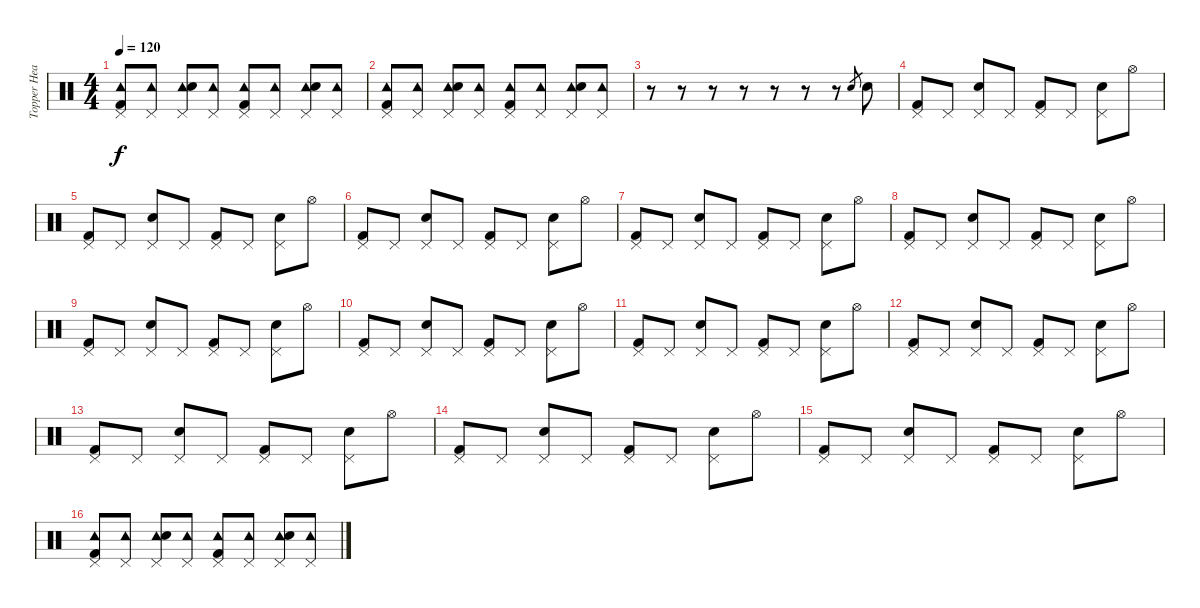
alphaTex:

\track ("Topper Headon" "Topper Hea") {instrument percussion}
\staff {score}
\articulation defaults
\ts (4 4)
\tempo 120
\clef neutral
\ks c
("Tambourine (hit)" "Pedal Hi-Hat (hit)" "Kick (hit) 2").8{dy f} ("Tambourine (hit)" "Pedal Hi-Hat (hit)").8 ("Tambourine (hit)" "Pedal Hi-Hat (hit)" "Electric Snare (hit)").8 ("Tambourine (hit)" "Pedal Hi-Hat (hit)").8 ("Tambourine (hit)" "Pedal Hi-Hat (hit)" "Kick (hit) 2").8 ("Tambourine (hit)" "Pedal Hi-Hat (hit)").8 ("Tambourine (hit)" "Pedal Hi-Hat (hit)" "Electric Snare (hit)").8 ("Tambourine (hit)" "Pedal Hi-Hat (hit)").8 |
("Tambourine (hit)" "Pedal Hi-Hat (hit)" "Kick (hit) 2").8 ("Tambourine (hit)" "Pedal Hi-Hat (hit)").8 ("Tambourine (hit)" "Pedal Hi-Hat (hit)" "Electric Snare (hit)").8 ("Tambourine (hit)" "Pedal Hi-Hat (hit)").8 ("Tambourine (hit)" "Pedal Hi-Hat (hit)" "Kick (hit) 2").8 ("Tambourine (hit)" "Pedal Hi-Hat (hit)").8 ("Tambourine (hit)" "Pedal Hi-Hat (hit)" "Electric Snare (hit)").8 ("Tambourine (hit)" "Pedal Hi-Hat (hit)").8 |
r.8 r.8 r.8 r.8 r.8 r.8 r.8 "Electric Snare (hit)".8{gr} "Electric Snare (hit)".8 |
("Pedal Hi-Hat (hit)" "Kick (hit) 2").8 "Pedal Hi-Hat (hit)".8 ("Pedal Hi-Hat (hit)" "Electric Snare (hit)").8 "Pedal Hi-Hat (hit)".8 ("Pedal Hi-Hat (hit)" "Kick (hit) 2").8 "Pedal Hi-Hat (hit)".8 ("Pedal Hi-Hat (hit)" "Electric Snare (hit)").8 "Hi-Hat (open)".8 |
("Pedal Hi-Hat (hit)" "Kick (hit) 2").8 "Pedal Hi-Hat (hit)".8 ("Pedal Hi-Hat (hit)" "Electric Snare (hit)").8 "Pedal Hi-Hat (hit)".8 ("Pedal Hi-Hat (hit)" "Kick (hit) 2").8 "Pedal Hi-Hat (hit)".8 ("Pedal Hi-Hat (hit)" "Electric Snare (hit)").8 "Hi-Hat (open)".8 |
("Pedal Hi-Hat (hit)" "Kick (hit) 2").8 "Pedal Hi-Hat (hit)".8 ("Pedal Hi-Hat (hit)" "Electric Snare (hit)").8 "Pedal Hi-Hat (hit)".8 ("Pedal Hi-Hat (hit)" "Kick (hit) 2").8 "Pedal Hi-Hat (hit)".8 ("Pedal Hi-Hat (hit)" "Electric Snare (hit)").8 "Hi-Hat (open)".8 |
("Pedal Hi-Hat (hit)" "Kick (hit) 2").8 "Pedal Hi-Hat (hit)".8 ("Pedal Hi-Hat (hit)" "Electric Snare (hit)").8 "Pedal Hi-Hat (hit)".8 ("Pedal Hi-Hat (hit)" "Kick (hit) 2").8 "Pedal Hi-Hat (hit)".8 ("Pedal Hi-Hat (hit)" "Electric Snare (hit)").8 "Hi-Hat (open)".8 |
("Pedal Hi-Hat (hit)" "Kick (hit) 2").8 "Pedal Hi-Hat (hit)".8 ("Pedal Hi-Hat (hit)" "Electric Snare (hit)").8 "Pedal Hi-Hat (hit)".8 ("Pedal Hi-Hat (hit)" "Kick (hit) 2").8 "Pedal Hi-Hat (hit)".8 ("Pedal Hi-Hat (hit)" "Electric Snare (hit)").8 "Hi-Hat (open)".8 |
("Pedal Hi-Hat (hit)" "Kick (hit) 2").8 "Pedal Hi-Hat (hit)".8 ("Pedal Hi-Hat (hit)" "Electric Snare (hit)").8 "Pedal Hi-Hat (hit)".8 ("Pedal Hi-Hat (hit)" "Kick (hit) 2").8 "Pedal Hi-Hat (hit)".8 ("Pedal Hi-Hat (hit)" "Electric Snare (hit)").8 "Hi-Hat (open)".8 |
("Pedal Hi-Hat (hit)" "Kick (hit) 2").8 "Pedal Hi-Hat (hit)".8 ("Pedal Hi-Hat (hit)" "Electric Snare (hit)").8 "Pedal Hi-Hat (hit)".8 ("Pedal Hi-Hat (hit)" "Kick (hit) 2").8 "Pedal Hi-Hat (hit)".8 ("Pedal Hi-Hat (hit)" "Electric Snare (hit)").8 "Hi-Hat (open)".8 |
("Pedal Hi-Hat (hit)" "Kick (hit) 2").8 "Pedal Hi-Hat (hit)".8 ("Pedal Hi-Hat (hit)" "Electric Snare (hit)").8 "Pedal Hi-Hat (hit)".8 ("Pedal Hi-Hat (hit)" "Kick (hit) 2").8 "Pedal Hi-Hat (hit)".8 ("Pedal Hi-Hat (hit)" "Electric Snare (hit)").8 "Hi-Hat (open)".8 |
("Pedal Hi-Hat (hit)" "Kick (hit) 2").8 "Pedal Hi-Hat (hit)".8 ("Pedal Hi-Hat (hit)" "Electric Snare (hit)").8 "Pedal Hi-Hat (hit)".8 ("Pedal Hi-Hat (hit)" "Kick (hit) 2").8 "Pedal Hi-Hat (hit)".8 ("Pedal Hi-Hat (hit)" "Electric Snare (hit)").8 "Hi-Hat (open)".8 |
("Pedal Hi-Hat (hit)" "Kick (hit) 2").8 "Pedal Hi-Hat (hit)".8 ("Pedal Hi-Hat (hit)" "Electric Snare (hit)").8 "Pedal Hi-Hat (hit)".8 ("Pedal Hi-Hat (hit)" "Kick (hit) 2").8 "Pedal Hi-Hat (hit)".8 ("Pedal Hi-Hat (hit)" "Electric Snare (hit)").8 "Hi-Hat (open)".8 |
("Pedal Hi-Hat (hit)" "Kick (hit) 2").8 "Pedal Hi-Hat (hit)".8 ("Pedal Hi-Hat (hit)" "Electric Snare (hit)").8 "Pedal Hi-Hat (hit)".8 ("Pedal Hi-Hat (hit)" "Kick (hit) 2").8 "Pedal Hi-Hat (hit)".8 ("Pedal Hi-Hat (hit)" "Electric Snare (hit)").8 "Hi-Hat (open)".8 |
("Pedal Hi-Hat (hit)" "Kick (hit) 2").8 "Pedal Hi-Hat (hit)".8 ("Pedal Hi-Hat (hit)" "Electric Snare (hit)").8 "Pedal Hi-Hat (hit)".8 ("Pedal Hi-Hat (hit)" "Kick (hit) 2").8 "Pedal Hi-Hat (hit)".8 ("Pedal Hi-Hat (hit)" "Electric Snare (hit)").8 "Hi-Hat (open)".8 |
("Tambourine (hit)" "Pedal Hi-Hat (hit)" "Kick (hit) 2").8 ("Tambourine (hit)" "Pedal Hi-Hat (hit)").8 ("Tambourine (hit)" "Pedal Hi-Hat (hit)" "Electric Snare (hit)").8 ("Tambourine (hit)" "Pedal Hi-Hat (hit)").8 ("Tambourine (hit)" "Pedal Hi-Hat (hit)" "Kick (hit) 2").8 ("Tambourine (hit)" "Pedal Hi-Hat (hit)").8 ("Tambourine (hit)" "Pedal Hi-Hat (hit)" "Electric Snare (hit)").8 ("Tambourine (hit)" "Pedal Hi-Hat (hit)").8
